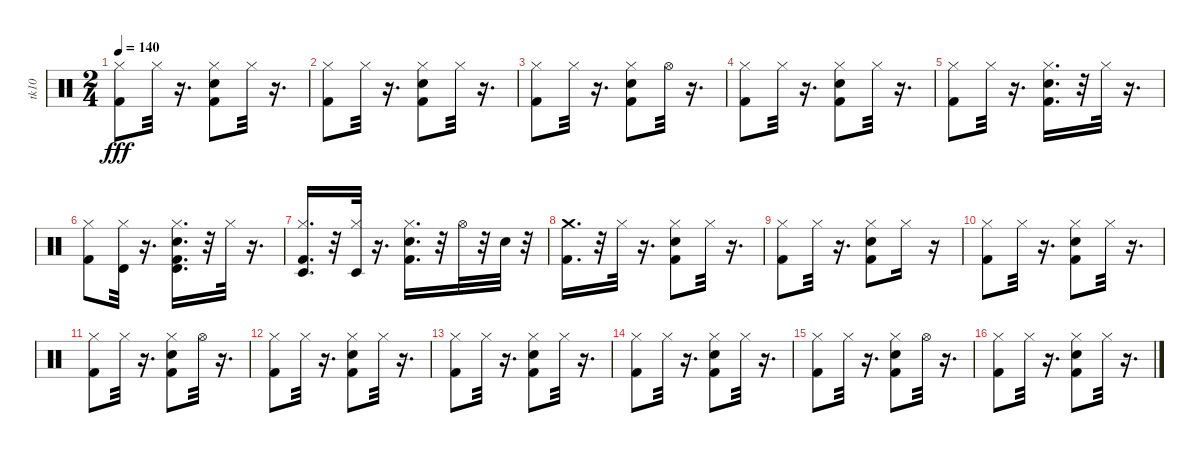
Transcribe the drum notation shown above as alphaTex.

\track ("tk10" "tk10") {instrument percussion}
\staff {score}
\articulation defaults
\ts (2 4)
\tempo 140
\clef neutral
\ks c
("Kick (hit) 2" "Hi-Hat (closed)").8{dy fff} "Hi-Hat (closed)".32 r.16{d} ("Snare (hit) 2" "Kick (hit) 2" "Hi-Hat (closed)").8 "Hi-Hat (closed)".32 r.16{d} |
("Kick (hit) 2" "Hi-Hat (closed)").8 "Hi-Hat (closed)".32 r.16{d} ("Snare (hit) 2" "Kick (hit) 2" "Hi-Hat (closed)").8 "Hi-Hat (closed)".32 r.16{d} |
("Kick (hit) 2" "Hi-Hat (closed)").8 "Hi-Hat (closed)".32 r.16{d} ("Snare (hit) 2" "Kick (hit) 2" "Hi-Hat (closed)").8 "Hi-Hat (open)".32 r.16{d} |
("Kick (hit) 2" "Hi-Hat (closed)").8 "Hi-Hat (closed)".32 r.16{d} ("Snare (hit) 2" "Kick (hit) 2" "Hi-Hat (closed)").8 "Hi-Hat (closed)".32 r.16{d} |
("Kick (hit) 2" "Hi-Hat (closed)").8 "Hi-Hat (closed)".32 r.16{d} ("Hi-Hat (closed)" "Snare (hit) 2" "Kick (hit) 2").16{d} r.32 "Hi-Hat (closed)".32 r.16{d} |
("Kick (hit) 2" "Hi-Hat (closed)").8 ("Timbale high (hit)" "Hi-Hat (closed)").32 r.16{d} ("Snare (hit) 2" "Hi-Hat (closed)" "Kick (hit) 2" "Timbale high (hit)").16{d} r.32 "Hi-Hat (closed)".32 r.16{d} |
("Kick (hit) 2" "Timbale low (hit)" "Hi-Hat (closed)").16{d} r.32 ("Timbale low (hit)" "Hi-Hat (closed)").32 r.16{d} ("Snare (hit) 2" "Kick (hit) 2" "Hi-Hat (closed)").16{d} r.32 "Hi-Hat (open)".32 r.32 "Snare (hit) 2".32 r.32 |
("Kick (hit) 2" "Crash medium (hit)").16{d} r.32 "Hi-Hat (closed)".32 r.16{d} ("Hi-Hat (closed)" "Kick (hit) 2" "Snare (hit) 2").8 "Hi-Hat (closed)".32 r.16{d} |
("Kick (hit) 2" "Hi-Hat (closed)").8 "Hi-Hat (closed)".32 r.16{d} ("Snare (hit) 2" "Kick (hit) 2" "Hi-Hat (closed)").8 "Hi-Hat (closed)".16 r.16 |
("Kick (hit) 2" "Hi-Hat (closed)").8 "Hi-Hat (closed)".32 r.16{d} ("Hi-Hat (closed)" "Snare (hit) 2" "Kick (hit) 2").8 "Hi-Hat (closed)".32 r.16{d} |
("Kick (hit) 2" "Hi-Hat (closed)").8 "Hi-Hat (closed)".32 r.16{d} ("Snare (hit) 2" "Hi-Hat (closed)" "Kick (hit) 2").8 "Hi-Hat (open)".32 r.16{d} |
("Kick (hit) 2" "Hi-Hat (closed)").8 "Hi-Hat (closed)".32 r.16{d} ("Snare (hit) 2" "Kick (hit) 2" "Hi-Hat (closed)").8 "Hi-Hat (closed)".32 r.16{d} |
("Kick (hit) 2" "Hi-Hat (closed)").8 "Hi-Hat (closed)".32 r.16{d} ("Snare (hit) 2" "Kick (hit) 2" "Hi-Hat (closed)").8 "Hi-Hat (closed)".32 r.16{d} |
("Kick (hit) 2" "Hi-Hat (closed)").8 "Hi-Hat (closed)".32 r.16{d} ("Snare (hit) 2" "Kick (hit) 2" "Hi-Hat (closed)").8 "Hi-Hat (closed)".32 r.16{d} |
("Kick (hit) 2" "Hi-Hat (closed)").8 "Hi-Hat (closed)".32 r.16{d} ("Hi-Hat (closed)" "Snare (hit) 2" "Kick (hit) 2").8 "Hi-Hat (open)".32 r.16{d} |
("Kick (hit) 2" "Hi-Hat (closed)").8 "Hi-Hat (closed)".32 r.16{d} ("Snare (hit) 2" "Kick (hit) 2" "Hi-Hat (closed)").8 "Hi-Hat (closed)".32 r.16{d}
